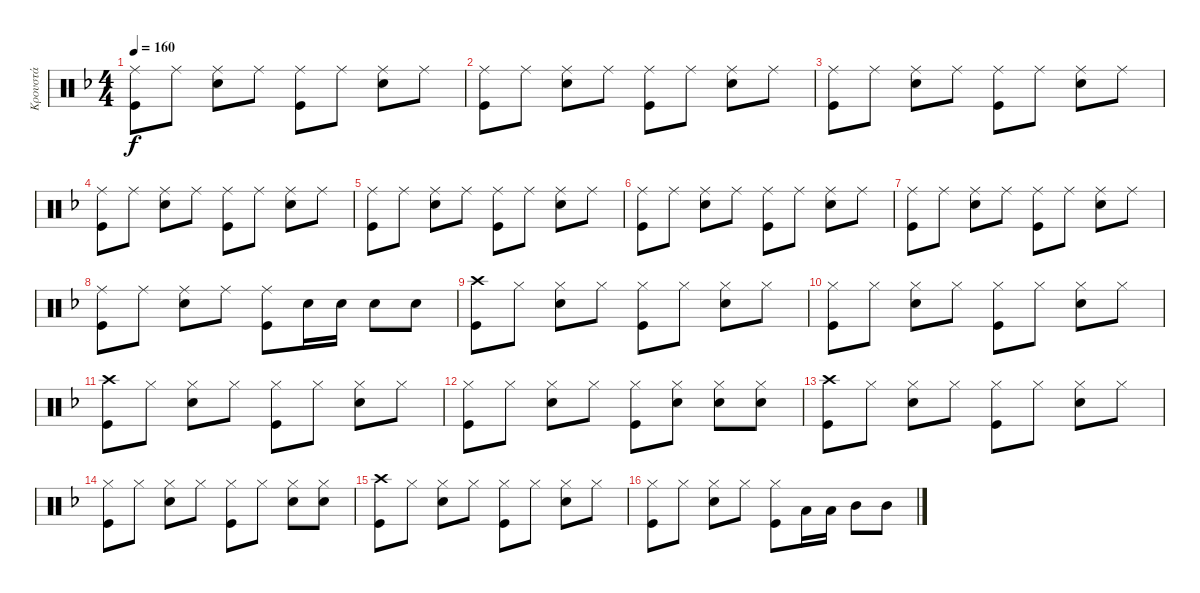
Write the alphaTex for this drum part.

\track ("Κρουστά" "Κρουστά") {instrument percussion}
\staff {score}
\articulation defaults
\ts (4 4)
\tempo 160
\clef neutral
\ks dminor
("Ride (middle)" "Kick (hit)").8{dy f} "Ride (middle)".8 ("Ride (middle)" "Snare (hit) 2").8 "Ride (middle)".8 ("Ride (middle)" "Kick (hit)").8 "Ride (middle)".8 ("Ride (middle)" "Snare (hit) 2").8 "Ride (middle)".8 |
("Ride (middle)" "Kick (hit)").8 "Ride (middle)".8 ("Ride (middle)" "Snare (hit) 2").8 "Ride (middle)".8 ("Ride (middle)" "Kick (hit)").8 "Ride (middle)".8 ("Ride (middle)" "Snare (hit) 2").8 "Ride (middle)".8 |
("Ride (middle)" "Kick (hit)").8 "Ride (middle)".8 ("Ride (middle)" "Snare (hit) 2").8 "Ride (middle)".8 ("Ride (middle)" "Kick (hit)").8 "Ride (middle)".8 ("Ride (middle)" "Snare (hit) 2").8 "Ride (middle)".8 |
("Ride (middle)" "Kick (hit)").8 "Ride (middle)".8 ("Ride (middle)" "Snare (hit) 2").8 "Ride (middle)".8 ("Ride (middle)" "Kick (hit)").8 "Ride (middle)".8 ("Ride (middle)" "Snare (hit) 2").8 "Ride (middle)".8 |
("Ride (middle)" "Kick (hit)").8 "Ride (middle)".8 ("Ride (middle)" "Snare (hit) 2").8 "Ride (middle)".8 ("Ride (middle)" "Kick (hit)").8 "Ride (middle)".8 ("Ride (middle)" "Snare (hit) 2").8 "Ride (middle)".8 |
("Ride (middle)" "Kick (hit)").8 "Ride (middle)".8 ("Ride (middle)" "Snare (hit) 2").8 "Ride (middle)".8 ("Ride (middle)" "Kick (hit)").8 "Ride (middle)".8 ("Ride (middle)" "Snare (hit) 2").8 "Ride (middle)".8 |
("Ride (middle)" "Kick (hit)").8 "Ride (middle)".8 ("Ride (middle)" "Snare (hit) 2").8 "Ride (middle)".8 ("Ride (middle)" "Kick (hit)").8 "Ride (middle)".8 ("Ride (middle)" "Snare (hit) 2").8 "Ride (middle)".8 |
("Ride (middle)" "Kick (hit)").8 "Ride (middle)".8 ("Ride (middle)" "Snare (hit) 2").8 "Ride (middle)".8 ("Ride (middle)" "Kick (hit)").8 "Snare (hit) 2".16 "Snare (hit) 2".16 "Snare (hit) 2".8 "Snare (hit) 2".8 |
("Crash high (hit)" "Kick (hit)").8 "Hi-Hat (closed)".8 ("Hi-Hat (closed)" "Snare (hit) 2").8 "Hi-Hat (closed)".8 ("Hi-Hat (closed)" "Kick (hit)").8 "Hi-Hat (closed)".8 ("Hi-Hat (closed)" "Snare (hit) 2").8 "Hi-Hat (closed)".8 |
("Hi-Hat (closed)" "Kick (hit)").8 "Hi-Hat (closed)".8 ("Hi-Hat (closed)" "Snare (hit) 2").8 "Hi-Hat (closed)".8 ("Hi-Hat (closed)" "Kick (hit)").8 "Hi-Hat (closed)".8 ("Hi-Hat (closed)" "Snare (hit) 2").8 "Hi-Hat (closed)".8 |
("Crash high (hit)" "Kick (hit)").8 "Hi-Hat (closed)".8 ("Hi-Hat (closed)" "Snare (hit) 2").8 "Hi-Hat (closed)".8 ("Hi-Hat (closed)" "Kick (hit)").8 "Hi-Hat (closed)".8 ("Hi-Hat (closed)" "Snare (hit) 2").8 "Hi-Hat (closed)".8 |
("Hi-Hat (closed)" "Kick (hit)").8 "Hi-Hat (closed)".8 ("Hi-Hat (closed)" "Snare (hit) 2").8 "Hi-Hat (closed)".8 ("Hi-Hat (closed)" "Kick (hit)").8 ("Hi-Hat (closed)" "Snare (hit) 2").8 ("Hi-Hat (closed)" "Snare (hit) 2").8 ("Hi-Hat (closed)" "Snare (hit) 2").8 |
("Crash high (hit)" "Kick (hit)").8 "Hi-Hat (closed)".8 ("Hi-Hat (closed)" "Snare (hit) 2").8 "Hi-Hat (closed)".8 ("Hi-Hat (closed)" "Kick (hit)").8 "Hi-Hat (closed)".8 ("Hi-Hat (closed)" "Snare (hit) 2").8 "Hi-Hat (closed)".8 |
("Hi-Hat (closed)" "Kick (hit)").8 "Hi-Hat (closed)".8 ("Hi-Hat (closed)" "Snare (hit) 2").8 "Hi-Hat (closed)".8 ("Hi-Hat (closed)" "Kick (hit)").8 "Hi-Hat (closed)".8 ("Hi-Hat (closed)" "Snare (hit) 2").8 ("Hi-Hat (closed)" "Snare (hit) 2").8 |
("Crash high (hit)" "Kick (hit)").8 "Hi-Hat (closed)".8 ("Hi-Hat (closed)" "Snare (hit) 2").8 "Hi-Hat (closed)".8 ("Hi-Hat (closed)" "Kick (hit)").8 "Hi-Hat (closed)".8 ("Hi-Hat (closed)" "Snare (hit) 2").8 "Hi-Hat (closed)".8 |
("Hi-Hat (closed)" "Kick (hit)").8 "Hi-Hat (closed)".8 ("Hi-Hat (closed)" "Snare (hit) 2").8 "Hi-Hat (closed)".8 ("Hi-Hat (closed)" "Kick (hit)").8 "Low Floor Tom (hit)".16 "Low Floor Tom (hit)".16 "Mid Tom (hit)".8 "Mid Tom (hit)".8
